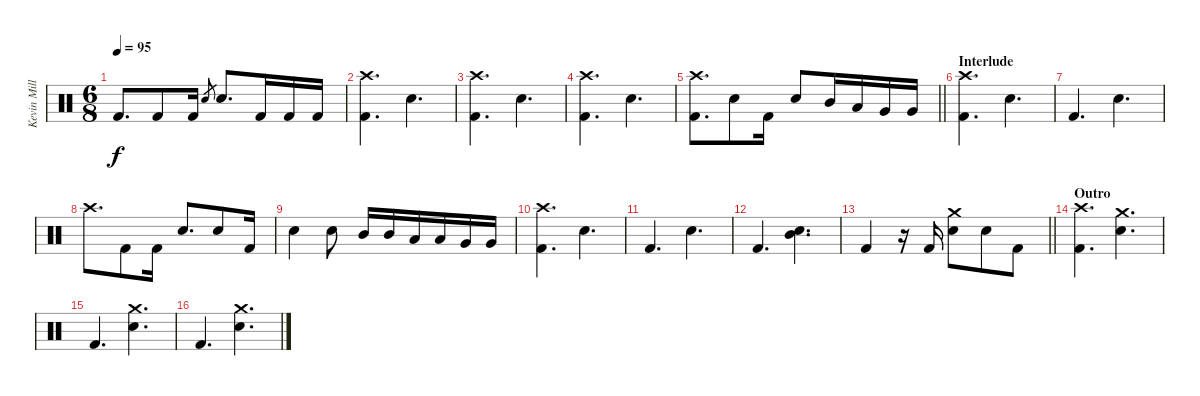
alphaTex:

\track ("Kevin Miller (Drums)" "Kevin Mill") {instrument percussion}
\staff {score}
\articulation defaults
\ts (6 8)
\tempo 95
\clef neutral
\ks c "Kick (hit) 2".8{d dy f} "Kick (hit) 2".8 "Kick (hit) 2".16 "Electric Snare (hit)".8{gr} "Electric Snare (hit)".8{d} "Kick (hit) 2".16 "Kick (hit) 2".16 "Kick (hit) 2".16
|
("Crash high (hit)" "Kick (hit) 2").4{d} "Electric Snare (hit)".4{d} |
("Crash high (hit)" "Kick (hit) 2").4{d} "Electric Snare (hit)".4{d} |
("Crash high (hit)" "Kick (hit) 2").4{d} "Electric Snare (hit)".4{d} |
\barLineRight lightlight
("Crash high (hit)" "Kick (hit) 2").8{d} "Electric Snare (hit)".8 "Kick (hit) 2".16 "Electric Snare (hit)".8 "Mid Tom (hit)".16 "Low Tom (hit)".16 "Very Low Tom (hit)".16 "Very Low Tom (hit)".16 |
\section ("" "Interlude")
("Crash high (hit)" "Kick (hit) 2").4{d} "Electric Snare (hit)".4{d} |
"Kick (hit) 2".4{d} "Electric Snare (hit)".4{d} |
"Crash high (hit)".8{d} "Kick (hit) 2".8 "Kick (hit) 2".16 "Electric Snare (hit)".8{d} "Electric Snare (hit)".8 "Kick (hit) 2".16 |
"Electric Snare (hit)".4 "Electric Snare (hit)".8 "Mid Tom (hit)".16 "Mid Tom (hit)".16 "Low Tom (hit)".16 "Low Tom (hit)".16 "Very Low Tom (hit)".16 "Very Low Tom (hit)".16 |
("Crash high (hit)" "Kick (hit) 2").4{d} "Electric Snare (hit)".4{d} |
"Kick (hit) 2".4{d} "Electric Snare (hit)".4{d} |
"Kick (hit) 2".4{d} ("Electric Snare (hit)" "Mid Tom (hit)").4{d} |
\barLineRight lightlight "Kick (hit) 2".4
r.16 "Kick (hit) 2".16 ("Electric Snare (hit)" "Crash medium (hit)").8 "Electric Snare (hit)".8 "Kick (hit) 2".8 |
\section ("" "Outro")
("Crash high (hit)" "Kick (hit) 2").4{d} ("Electric Snare (hit)" "Crash medium (hit)").4{d} |
"Kick (hit) 2".4{d} ("Electric Snare (hit)" "Crash medium (hit)").4{d} |
"Kick (hit) 2".4{d} ("Electric Snare (hit)" "Crash medium (hit)").4{d}
